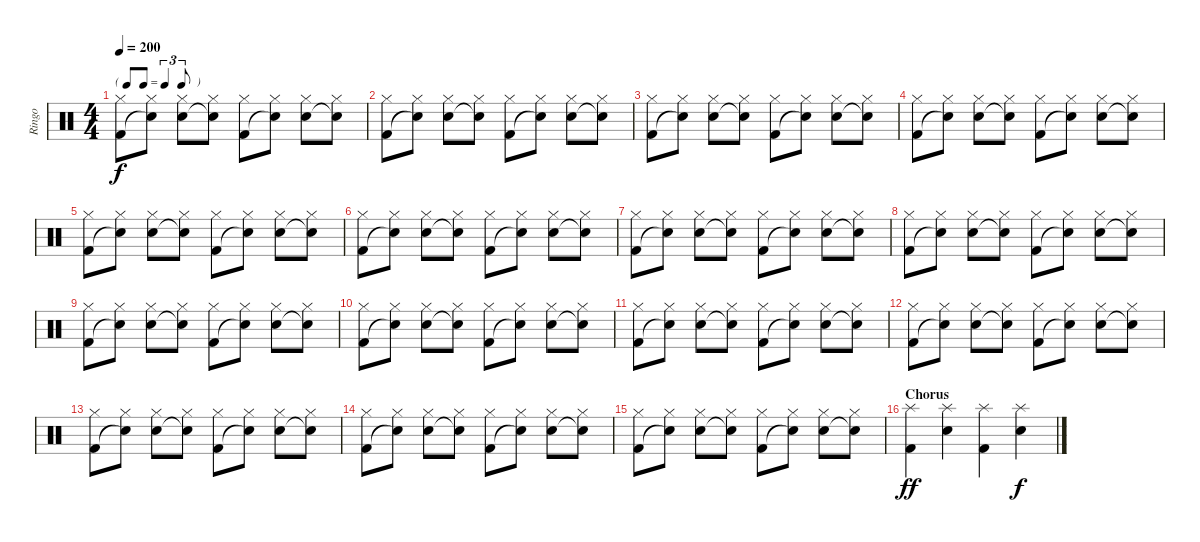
\track ("Ringo" "Ringo") {instrument percussion}
\staff {score}
\articulation defaults
\ts (4 4)
\tf triplet8th
\tempo 200
\clef neutral
\ks c
("Hi-Hat (closed)" "Kick (hit) 2").8{dy f} ("Hi-Hat (closed)" "Snare (hit)"{t}).8 ("Hi-Hat (closed)" "Electric Snare (hit)").8 ("Hi-Hat (closed)" "Snare (hit)"{t}).8 ("Hi-Hat (closed)" "Kick (hit) 2").8 ("Hi-Hat (closed)" "Snare (hit)"{t}).8 ("Hi-Hat (closed)" "Electric Snare (hit)").8 ("Hi-Hat (closed)" "Snare (hit)"{t}).8 |
("Hi-Hat (closed)" "Kick (hit) 2").8 ("Hi-Hat (closed)" "Snare (hit)"{t}).8 ("Hi-Hat (closed)" "Electric Snare (hit)").8 ("Hi-Hat (closed)" "Snare (hit)"{t}).8 ("Hi-Hat (closed)" "Kick (hit) 2").8 ("Hi-Hat (closed)" "Snare (hit)"{t}).8 ("Hi-Hat (closed)" "Electric Snare (hit)").8 ("Hi-Hat (closed)" "Snare (hit)"{t}).8 |
("Hi-Hat (closed)" "Kick (hit) 2").8 ("Hi-Hat (closed)" "Snare (hit)"{t}).8 ("Hi-Hat (closed)" "Electric Snare (hit)").8 ("Hi-Hat (closed)" "Snare (hit)"{t}).8 ("Hi-Hat (closed)" "Kick (hit) 2").8 ("Hi-Hat (closed)" "Snare (hit)"{t}).8 ("Hi-Hat (closed)" "Electric Snare (hit)").8 ("Hi-Hat (closed)" "Snare (hit)"{t}).8 |
("Hi-Hat (closed)" "Kick (hit) 2").8 ("Hi-Hat (closed)" "Snare (hit)"{t}).8 ("Hi-Hat (closed)" "Electric Snare (hit)").8 ("Hi-Hat (closed)" "Snare (hit)"{t}).8 ("Hi-Hat (closed)" "Kick (hit) 2").8 ("Hi-Hat (closed)" "Snare (hit)"{t}).8 ("Hi-Hat (closed)" "Electric Snare (hit)").8 ("Hi-Hat (closed)" "Snare (hit)"{t}).8 |
("Hi-Hat (closed)" "Kick (hit) 2").8 ("Hi-Hat (closed)" "Snare (hit)"{t}).8 ("Hi-Hat (closed)" "Electric Snare (hit)").8 ("Hi-Hat (closed)" "Snare (hit)"{t}).8 ("Hi-Hat (closed)" "Kick (hit) 2").8 ("Hi-Hat (closed)" "Snare (hit)"{t}).8 ("Hi-Hat (closed)" "Electric Snare (hit)").8 ("Hi-Hat (closed)" "Snare (hit)"{t}).8 |
("Hi-Hat (closed)" "Kick (hit) 2").8 ("Hi-Hat (closed)" "Snare (hit)"{t}).8 ("Hi-Hat (closed)" "Electric Snare (hit)").8 ("Hi-Hat (closed)" "Snare (hit)"{t}).8 ("Hi-Hat (closed)" "Kick (hit) 2").8 ("Hi-Hat (closed)" "Snare (hit)"{t}).8 ("Hi-Hat (closed)" "Electric Snare (hit)").8 ("Hi-Hat (closed)" "Snare (hit)"{t}).8 |
("Hi-Hat (closed)" "Kick (hit) 2").8 ("Hi-Hat (closed)" "Snare (hit)"{t}).8 ("Hi-Hat (closed)" "Electric Snare (hit)").8 ("Hi-Hat (closed)" "Snare (hit)"{t}).8 ("Hi-Hat (closed)" "Kick (hit) 2").8 ("Hi-Hat (closed)" "Snare (hit)"{t}).8 ("Hi-Hat (closed)" "Electric Snare (hit)").8 ("Hi-Hat (closed)" "Snare (hit)"{t}).8 |
("Hi-Hat (closed)" "Kick (hit) 2").8 ("Hi-Hat (closed)" "Snare (hit)"{t}).8 ("Hi-Hat (closed)" "Electric Snare (hit)").8 ("Hi-Hat (closed)" "Snare (hit)"{t}).8 ("Hi-Hat (closed)" "Kick (hit) 2").8 ("Hi-Hat (closed)" "Snare (hit)"{t}).8 ("Hi-Hat (closed)" "Electric Snare (hit)").8 ("Hi-Hat (closed)" "Snare (hit)"{t}).8 |
("Hi-Hat (closed)" "Kick (hit) 2").8 ("Hi-Hat (closed)" "Snare (hit)"{t}).8 ("Hi-Hat (closed)" "Electric Snare (hit)").8 ("Hi-Hat (closed)" "Snare (hit)"{t}).8 ("Hi-Hat (closed)" "Kick (hit) 2").8 ("Hi-Hat (closed)" "Snare (hit)"{t}).8 ("Hi-Hat (closed)" "Electric Snare (hit)").8 ("Hi-Hat (closed)" "Snare (hit)"{t}).8 |
("Hi-Hat (closed)" "Kick (hit) 2").8 ("Hi-Hat (closed)" "Snare (hit)"{t}).8 ("Hi-Hat (closed)" "Electric Snare (hit)").8 ("Hi-Hat (closed)" "Snare (hit)"{t}).8 ("Hi-Hat (closed)" "Kick (hit) 2").8 ("Hi-Hat (closed)" "Snare (hit)"{t}).8 ("Hi-Hat (closed)" "Electric Snare (hit)").8 ("Hi-Hat (closed)" "Snare (hit)"{t}).8 |
("Hi-Hat (closed)" "Kick (hit) 2").8 ("Hi-Hat (closed)" "Snare (hit)"{t}).8 ("Hi-Hat (closed)" "Electric Snare (hit)").8 ("Hi-Hat (closed)" "Snare (hit)"{t}).8 ("Hi-Hat (closed)" "Kick (hit) 2").8 ("Hi-Hat (closed)" "Snare (hit)"{t}).8 ("Hi-Hat (closed)" "Electric Snare (hit)").8 ("Hi-Hat (closed)" "Snare (hit)"{t}).8 |
("Hi-Hat (closed)" "Kick (hit) 2").8 ("Hi-Hat (closed)" "Snare (hit)"{t}).8 ("Hi-Hat (closed)" "Electric Snare (hit)").8 ("Hi-Hat (closed)" "Snare (hit)"{t}).8 ("Hi-Hat (closed)" "Kick (hit) 2").8 ("Hi-Hat (closed)" "Snare (hit)"{t}).8 ("Hi-Hat (closed)" "Electric Snare (hit)").8 ("Hi-Hat (closed)" "Snare (hit)"{t}).8 |
("Hi-Hat (closed)" "Kick (hit) 2").8 ("Hi-Hat (closed)" "Snare (hit)"{t}).8 ("Hi-Hat (closed)" "Electric Snare (hit)").8 ("Hi-Hat (closed)" "Snare (hit)"{t}).8 ("Hi-Hat (closed)" "Kick (hit) 2").8 ("Hi-Hat (closed)" "Snare (hit)"{t}).8 ("Hi-Hat (closed)" "Electric Snare (hit)").8 ("Hi-Hat (closed)" "Snare (hit)"{t}).8 |
("Hi-Hat (closed)" "Kick (hit) 2").8 ("Hi-Hat (closed)" "Snare (hit)"{t}).8 ("Hi-Hat (closed)" "Electric Snare (hit)").8 ("Hi-Hat (closed)" "Snare (hit)"{t}).8 ("Hi-Hat (closed)" "Kick (hit) 2").8 ("Hi-Hat (closed)" "Snare (hit)"{t}).8 ("Hi-Hat (closed)" "Electric Snare (hit)").8 ("Hi-Hat (closed)" "Snare (hit)"{t}).8 |
("Hi-Hat (closed)" "Kick (hit) 2").8 ("Hi-Hat (closed)" "Snare (hit)"{t}).8 ("Hi-Hat (closed)" "Electric Snare (hit)").8 ("Hi-Hat (closed)" "Snare (hit)"{t}).8 ("Hi-Hat (closed)" "Kick (hit) 2").8 ("Hi-Hat (closed)" "Snare (hit)"{t}).8 ("Hi-Hat (closed)" "Electric Snare (hit)").8 ("Hi-Hat (closed)" "Snare (hit)"{t}).8 |
\section ("" "Chorus")
("Splash (hit)" "Kick (hit) 2").4{dy ff} ("Splash (hit)" "Electric Snare (hit)").4 ("Splash (hit)" "Kick (hit) 2").4 ("Splash (hit)" "Electric Snare (hit)").4{dy f}
